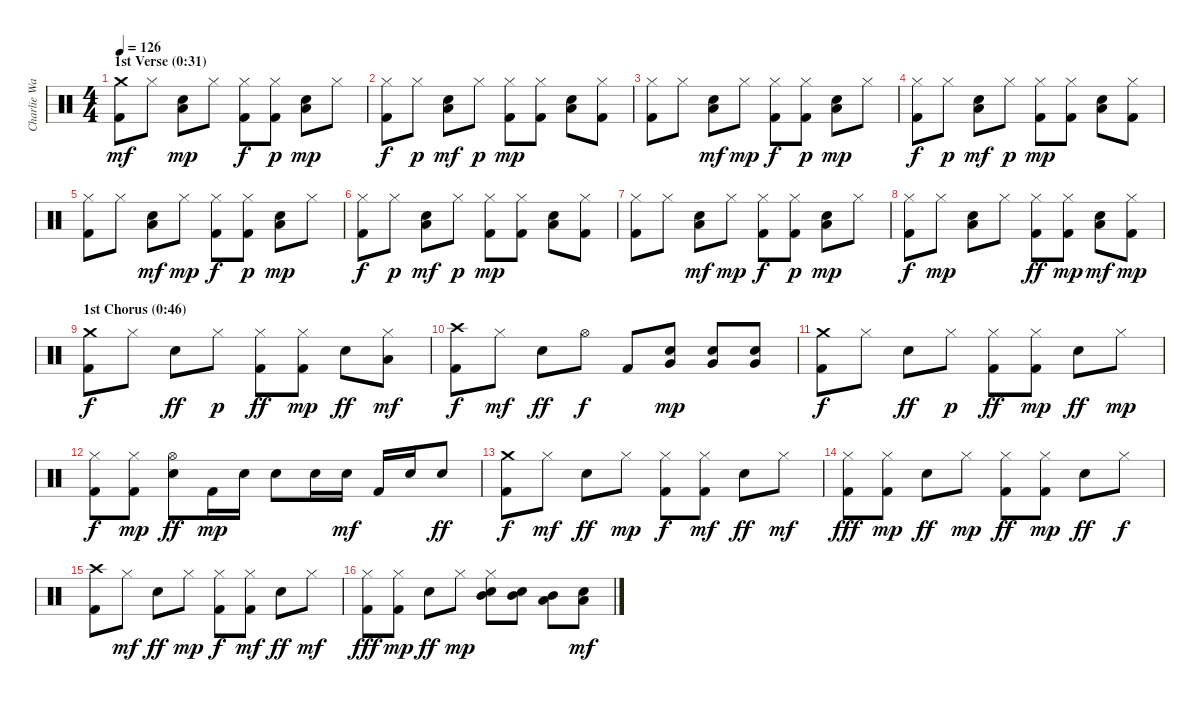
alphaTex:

\track ("Charlie Watts" "Charlie Wa") {instrument percussion}
\staff {score}
\articulation defaults
\ts (4 4)
\section ("" "1st Verse (0:31)")
\tempo 126
\clef neutral
\ks c
("Kick (hit) 2" "Crash medium (hit)").8{dy mf} "Hi-Hat (closed)".8 ("Electric Snare (hit)" "Low Tom (hit)").8{dy mp} "Hi-Hat (closed)".8 ("Kick (hit) 2" "Hi-Hat (closed)").8{dy f} ("Kick (hit) 2" "Hi-Hat (closed)").8{dy p} ("Electric Snare (hit)" "Low Tom (hit)").8{dy mp} "Hi-Hat (closed)".8 |
("Kick (hit) 2" "Hi-Hat (closed)").8{dy f} "Hi-Hat (closed)".8{dy p} ("Electric Snare (hit)" "Low Tom (hit)").8{dy mf} "Hi-Hat (closed)".8{dy p} ("Kick (hit) 2" "Hi-Hat (closed)").8{dy mp} ("Kick (hit) 2" "Hi-Hat (closed)").8 ("Electric Snare (hit)" "Low Tom (hit)").8 ("Kick (hit) 2" "Hi-Hat (closed)").8 |
("Kick (hit) 2" "Hi-Hat (closed)").8 "Hi-Hat (closed)".8 ("Electric Snare (hit)" "Low Tom (hit)").8{dy mf} "Hi-Hat (closed)".8{dy mp} ("Kick (hit) 2" "Hi-Hat (closed)").8{dy f} ("Kick (hit) 2" "Hi-Hat (closed)").8{dy p} ("Electric Snare (hit)" "Low Tom (hit)").8{dy mp} "Hi-Hat (closed)".8 |
("Kick (hit) 2" "Hi-Hat (closed)").8{dy f} "Hi-Hat (closed)".8{dy p} ("Electric Snare (hit)" "Low Tom (hit)").8{dy mf} "Hi-Hat (closed)".8{dy p} ("Kick (hit) 2" "Hi-Hat (closed)").8{dy mp} ("Kick (hit) 2" "Hi-Hat (closed)").8 ("Electric Snare (hit)" "Low Tom (hit)").8 ("Kick (hit) 2" "Hi-Hat (closed)").8 |
("Kick (hit) 2" "Hi-Hat (closed)").8 "Hi-Hat (closed)".8 ("Electric Snare (hit)" "Low Tom (hit)").8{dy mf} "Hi-Hat (closed)".8{dy mp} ("Kick (hit) 2" "Hi-Hat (closed)").8{dy f} ("Kick (hit) 2" "Hi-Hat (closed)").8{dy p} ("Electric Snare (hit)" "Low Tom (hit)").8{dy mp} "Hi-Hat (closed)".8 |
("Kick (hit) 2" "Hi-Hat (closed)").8{dy f} "Hi-Hat (closed)".8{dy p} ("Electric Snare (hit)" "Low Tom (hit)").8{dy mf} "Hi-Hat (closed)".8{dy p} ("Kick (hit) 2" "Hi-Hat (closed)").8{dy mp} ("Kick (hit) 2" "Hi-Hat (closed)").8 ("Electric Snare (hit)" "Low Tom (hit)").8 ("Kick (hit) 2" "Hi-Hat (closed)").8 |
("Kick (hit) 2" "Hi-Hat (closed)").8 "Hi-Hat (closed)".8 ("Electric Snare (hit)" "Low Tom (hit)").8{dy mf} "Hi-Hat (closed)".8{dy mp} ("Kick (hit) 2" "Hi-Hat (closed)").8{dy f} ("Kick (hit) 2" "Hi-Hat (closed)").8{dy p} ("Electric Snare (hit)" "Low Tom (hit)").8{dy mp} "Hi-Hat (closed)".8 |
("Kick (hit) 2" "Hi-Hat (closed)").8{dy f} "Hi-Hat (closed)".8{dy mp} ("Electric Snare (hit)" "Low Tom (hit)").8 "Hi-Hat (closed)".8 ("Kick (hit) 2" "Hi-Hat (closed)").8{dy ff} ("Kick (hit) 2" "Hi-Hat (closed)").8{dy mp} ("Electric Snare (hit)" "Low Tom (hit)").8{dy mf} ("Kick (hit) 2" "Hi-Hat (closed)").8{dy mp} |
\section ("" "1st Chorus (0:46)")
("Kick (hit) 2" "Crash medium (hit)").8{dy f} "Hi-Hat (closed)".8 "Electric Snare (hit)".8{dy ff} "Hi-Hat (closed)".8{dy p} ("Kick (hit) 2" "Hi-Hat (closed)").8{dy ff} ("Kick (hit) 2" "Hi-Hat (closed)").8{dy mp} "Electric Snare (hit)".8{dy ff} ("Hi-Hat (closed)" "Low Tom (hit)").8{dy mf} |
("Kick (hit) 2" "Crash high (hit)").8{dy f} "Hi-Hat (closed)".8{dy mf} "Electric Snare (hit)".8{dy ff} "Hi-Hat (open)".8{dy f} "Kick (hit) 2".8 ("Electric Snare (hit)" "Very Low Tom (hit)").8{dy mp} ("Electric Snare (hit)" "Very Low Tom (hit)").8 ("Electric Snare (hit)" "Very Low Tom (hit)").8 |
("Kick (hit) 2" "Crash medium (hit)").8{dy f} "Hi-Hat (closed)".8 "Electric Snare (hit)".8{dy ff} "Hi-Hat (closed)".8{dy p} ("Kick (hit) 2" "Hi-Hat (closed)").8{dy ff} ("Kick (hit) 2" "Hi-Hat (closed)").8{dy mp} "Electric Snare (hit)".8{dy ff} "Hi-Hat (closed)".8{dy mp} |
("Kick (hit) 2" "Hi-Hat (closed)").8{dy f} ("Kick (hit) 2" "Hi-Hat (closed)").8{dy mp} ("Electric Snare (hit)" "Hi-Hat (open)").8{dy ff} "Kick (hit) 2".16{dy mp} "Electric Snare (hit)".16 "Electric Snare (hit)".8 "Electric Snare (hit)".16 "Electric Snare (hit)".16{dy mf} "Kick (hit) 2".16 "Electric Snare (hit)".16 "Electric Snare (hit)".8{dy ff} |
("Kick (hit) 2" "Crash medium (hit)").8{dy f} "Hi-Hat (closed)".8{dy mf} "Electric Snare (hit)".8{dy ff} "Hi-Hat (closed)".8{dy mp} ("Kick (hit) 2" "Hi-Hat (closed)").8{dy f} ("Kick (hit) 2" "Hi-Hat (closed)").8{dy mf} "Electric Snare (hit)".8{dy ff} "Hi-Hat (closed)".8{dy mf} |
("Kick (hit) 2" "Hi-Hat (closed)").8{dy fff} ("Kick (hit) 2" "Hi-Hat (closed)").8{dy mp} "Electric Snare (hit)".8{dy ff} "Hi-Hat (closed)".8{dy mp} ("Kick (hit) 2" "Hi-Hat (closed)").8{dy ff} ("Kick (hit) 2" "Hi-Hat (closed)").8{dy mp} "Electric Snare (hit)".8{dy ff} "Hi-Hat (closed)".8{dy f} |
("Kick (hit) 2" "Crash high (hit)").8 "Hi-Hat (closed)".8{dy mf} "Electric Snare (hit)".8{dy ff} "Hi-Hat (closed)".8{dy mp} ("Kick (hit) 2" "Hi-Hat (closed)").8{dy f} ("Kick (hit) 2" "Hi-Hat (closed)").8{dy mf} "Electric Snare (hit)".8{dy ff} "Hi-Hat (closed)".8{dy mf} |
("Kick (hit) 2" "Hi-Hat (closed)").8{dy fff} ("Kick (hit) 2" "Hi-Hat (closed)").8{dy mp} "Electric Snare (hit)".8{dy ff} "Hi-Hat (closed)".8{dy mp} ("Electric Snare (hit)" "Hi-Hat (closed)" "Mid Tom (hit)").8 ("Electric Snare (hit)" "Mid Tom (hit)").8 ("Low Tom (hit)" "Mid Tom (hit)").8 ("Electric Snare (hit)" "Low Tom (hit)").8{dy mf}
